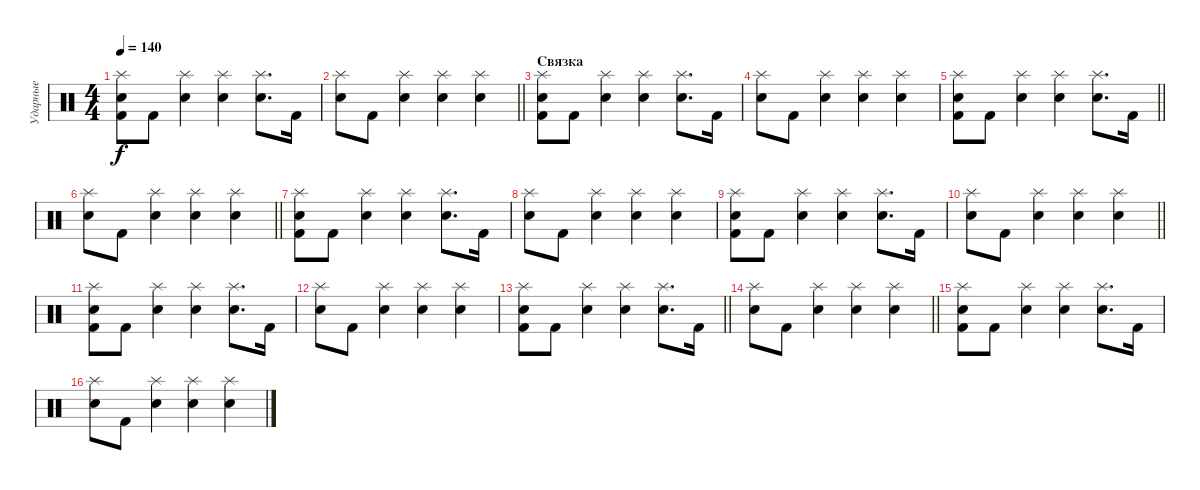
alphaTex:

\track ("Ударные" "Ударные") {instrument percussion}
\staff {score}
\articulation defaults
\ts (4 4)
\tempo 140
\clef neutral
\ks c
("Splash (hit)" "Electric Snare (hit)" "Kick (hit) 2").8{dy f} "Kick (hit) 2".8 ("Splash (hit)" "Electric Snare (hit)").4 ("Splash (hit)" "Electric Snare (hit)").4 ("Splash (hit)" "Electric Snare (hit)").8{d} "Kick (hit) 2".16 |
\barLineRight lightlight
("Splash (hit)" "Electric Snare (hit)").8 "Kick (hit) 2".8 ("Splash (hit)" "Electric Snare (hit)").4 ("Splash (hit)" "Electric Snare (hit)").4 ("Splash (hit)" "Electric Snare (hit)").4 |
\section ("" "Связка")
("Splash (hit)" "Electric Snare (hit)" "Kick (hit) 2").8 "Kick (hit) 2".8 ("Splash (hit)" "Electric Snare (hit)").4 ("Splash (hit)" "Electric Snare (hit)").4 ("Splash (hit)" "Electric Snare (hit)").8{d} "Kick (hit) 2".16 |
("Splash (hit)" "Electric Snare (hit)").8 "Kick (hit) 2".8 ("Splash (hit)" "Electric Snare (hit)").4 ("Splash (hit)" "Electric Snare (hit)").4 ("Splash (hit)" "Electric Snare (hit)").4 |
\barLineRight lightlight
("Splash (hit)" "Electric Snare (hit)" "Kick (hit) 2").8 "Kick (hit) 2".8 ("Splash (hit)" "Electric Snare (hit)").4 ("Splash (hit)" "Electric Snare (hit)").4 ("Splash (hit)" "Electric Snare (hit)").8{d} "Kick (hit) 2".16 |
\barLineRight lightlight
("Splash (hit)" "Electric Snare (hit)").8 "Kick (hit) 2".8 ("Splash (hit)" "Electric Snare (hit)").4 ("Splash (hit)" "Electric Snare (hit)").4 ("Splash (hit)" "Electric Snare (hit)").4 |
("Splash (hit)" "Electric Snare (hit)" "Kick (hit) 2").8 "Kick (hit) 2".8 ("Splash (hit)" "Electric Snare (hit)").4 ("Splash (hit)" "Electric Snare (hit)").4 ("Splash (hit)" "Electric Snare (hit)").8{d} "Kick (hit) 2".16 |
("Splash (hit)" "Electric Snare (hit)").8 "Kick (hit) 2".8 ("Splash (hit)" "Electric Snare (hit)").4 ("Splash (hit)" "Electric Snare (hit)").4 ("Splash (hit)" "Electric Snare (hit)").4 |
("Splash (hit)" "Electric Snare (hit)" "Kick (hit) 2").8 "Kick (hit) 2".8 ("Splash (hit)" "Electric Snare (hit)").4 ("Splash (hit)" "Electric Snare (hit)").4 ("Splash (hit)" "Electric Snare (hit)").8{d} "Kick (hit) 2".16 |
\barLineRight lightlight
("Splash (hit)" "Electric Snare (hit)").8 "Kick (hit) 2".8 ("Splash (hit)" "Electric Snare (hit)").4 ("Splash (hit)" "Electric Snare (hit)").4 ("Splash (hit)" "Electric Snare (hit)").4 |
("Splash (hit)" "Electric Snare (hit)" "Kick (hit) 2").8 "Kick (hit) 2".8 ("Splash (hit)" "Electric Snare (hit)").4 ("Splash (hit)" "Electric Snare (hit)").4 ("Splash (hit)" "Electric Snare (hit)").8{d} "Kick (hit) 2".16 |
("Splash (hit)" "Electric Snare (hit)").8 "Kick (hit) 2".8 ("Splash (hit)" "Electric Snare (hit)").4 ("Splash (hit)" "Electric Snare (hit)").4 ("Splash (hit)" "Electric Snare (hit)").4 |
\barLineRight lightlight
("Splash (hit)" "Electric Snare (hit)" "Kick (hit) 2").8 "Kick (hit) 2".8 ("Splash (hit)" "Electric Snare (hit)").4 ("Splash (hit)" "Electric Snare (hit)").4 ("Splash (hit)" "Electric Snare (hit)").8{d} "Kick (hit) 2".16 |
\barLineRight lightlight
("Splash (hit)" "Electric Snare (hit)").8 "Kick (hit) 2".8 ("Splash (hit)" "Electric Snare (hit)").4 ("Splash (hit)" "Electric Snare (hit)").4 ("Splash (hit)" "Electric Snare (hit)").4 |
("Splash (hit)" "Electric Snare (hit)" "Kick (hit) 2").8 "Kick (hit) 2".8 ("Splash (hit)" "Electric Snare (hit)").4 ("Splash (hit)" "Electric Snare (hit)").4 ("Splash (hit)" "Electric Snare (hit)").8{d} "Kick (hit) 2".16 |
("Splash (hit)" "Electric Snare (hit)").8 "Kick (hit) 2".8 ("Splash (hit)" "Electric Snare (hit)").4 ("Splash (hit)" "Electric Snare (hit)").4 ("Splash (hit)" "Electric Snare (hit)").4
